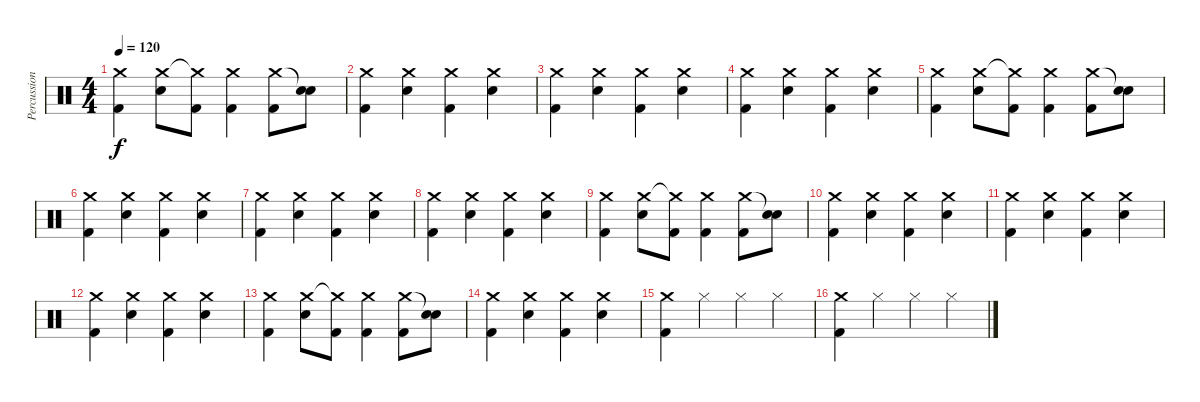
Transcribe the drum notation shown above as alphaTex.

\track ("Percussions" "Percussion") {instrument percussion}
\staff {score}
\articulation defaults
\ts (4 4)
\tempo 120
\clef neutral
\ks c
("Crash medium (hit)" "Kick (hit) 2").4{dy f} ("Crash medium (hit)" "Snare (hit) 2").8 ("Crash medium (hit)"{t} "Kick (hit) 2").8 ("Crash medium (hit)" "Kick (hit) 2").4 ("Crash medium (hit)" "Kick (hit) 2").8 ("Snare (hit)"{t} "Snare (hit) 2").8 |
("Crash medium (hit)" "Kick (hit) 2").4 ("Crash medium (hit)" "Snare (hit) 2").4 ("Crash medium (hit)" "Kick (hit) 2").4 ("Crash medium (hit)" "Snare (hit) 2").4 |
("Crash medium (hit)" "Kick (hit) 2").4 ("Crash medium (hit)" "Snare (hit) 2").4 ("Crash medium (hit)" "Kick (hit) 2").4 ("Crash medium (hit)" "Snare (hit) 2").4 |
("Crash medium (hit)" "Kick (hit) 2").4 ("Crash medium (hit)" "Snare (hit) 2").4 ("Crash medium (hit)" "Kick (hit) 2").4 ("Crash medium (hit)" "Snare (hit) 2").4 |
("Crash medium (hit)" "Kick (hit) 2").4 ("Crash medium (hit)" "Snare (hit) 2").8 ("Crash medium (hit)"{t} "Kick (hit) 2").8 ("Crash medium (hit)" "Kick (hit) 2").4 ("Crash medium (hit)" "Kick (hit) 2").8 ("Snare (hit)"{t} "Snare (hit) 2").8 |
("Crash medium (hit)" "Kick (hit) 2").4 ("Crash medium (hit)" "Snare (hit) 2").4 ("Crash medium (hit)" "Kick (hit) 2").4 ("Crash medium (hit)" "Snare (hit) 2").4 |
("Crash medium (hit)" "Kick (hit) 2").4 ("Crash medium (hit)" "Snare (hit) 2").4 ("Crash medium (hit)" "Kick (hit) 2").4 ("Crash medium (hit)" "Snare (hit) 2").4 |
("Crash medium (hit)" "Kick (hit) 2").4 ("Crash medium (hit)" "Snare (hit) 2").4 ("Crash medium (hit)" "Kick (hit) 2").4 ("Crash medium (hit)" "Snare (hit) 2").4 |
("Crash medium (hit)" "Kick (hit) 2").4 ("Crash medium (hit)" "Snare (hit) 2").8 ("Crash medium (hit)"{t} "Kick (hit) 2").8 ("Crash medium (hit)" "Kick (hit) 2").4 ("Crash medium (hit)" "Kick (hit) 2").8 ("Snare (hit)"{t} "Snare (hit) 2").8 |
("Crash medium (hit)" "Kick (hit) 2").4 ("Crash medium (hit)" "Snare (hit) 2").4 ("Crash medium (hit)" "Kick (hit) 2").4 ("Crash medium (hit)" "Snare (hit) 2").4 |
("Crash medium (hit)" "Kick (hit) 2").4 ("Crash medium (hit)" "Snare (hit) 2").4 ("Crash medium (hit)" "Kick (hit) 2").4 ("Crash medium (hit)" "Snare (hit) 2").4 |
("Crash medium (hit)" "Kick (hit) 2").4 ("Crash medium (hit)" "Snare (hit) 2").4 ("Crash medium (hit)" "Kick (hit) 2").4 ("Crash medium (hit)" "Snare (hit) 2").4 |
("Crash medium (hit)" "Kick (hit) 2").4 ("Crash medium (hit)" "Snare (hit) 2").8 ("Crash medium (hit)"{t} "Kick (hit) 2").8 ("Crash medium (hit)" "Kick (hit) 2").4 ("Crash medium (hit)" "Kick (hit) 2").8 ("Snare (hit)"{t} "Snare (hit) 2").8 |
("Crash medium (hit)" "Kick (hit) 2").4 ("Crash medium (hit)" "Snare (hit) 2").4 ("Crash medium (hit)" "Kick (hit) 2").4 ("Crash medium (hit)" "Snare (hit) 2").4 |
("Crash medium (hit)" "Kick (hit) 2").4 "Hi-Hat (closed)".4 "Hi-Hat (closed)".4 "Hi-Hat (closed)".4 |
("Crash medium (hit)" "Kick (hit) 2").4 "Hi-Hat (closed)".4 "Hi-Hat (closed)".4 "Hi-Hat (closed)".4
